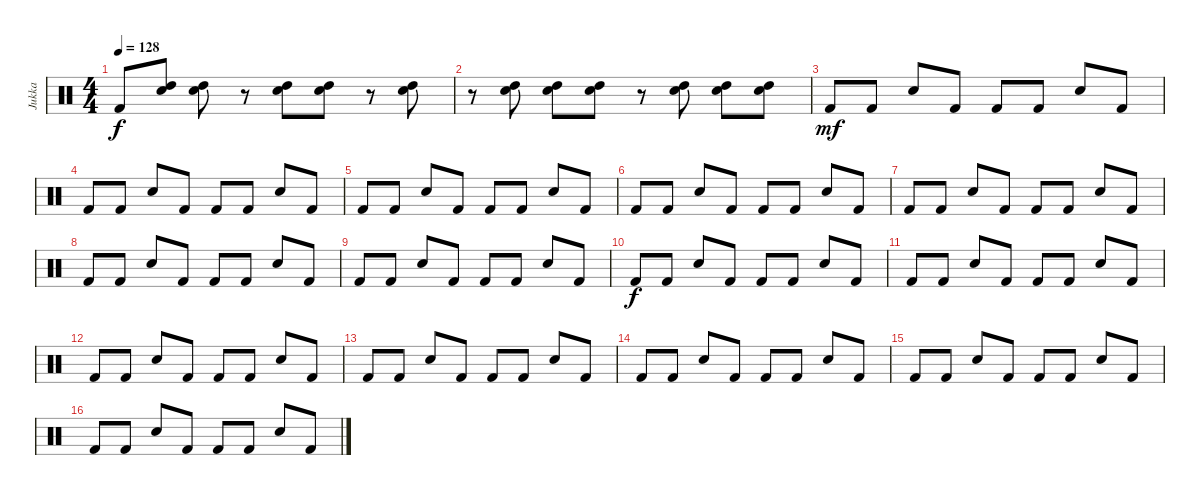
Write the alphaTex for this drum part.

\track ("Jukka" "Jukka") {instrument percussion}
\staff {score}
\articulation defaults
\ts (4 4)
\tempo 128
\clef neutral
\ks c "Kick (hit) 2".8{dy f}
("Electric Snare (hit)" "High Tom (hit)").8 ("Electric Snare (hit)" "High Tom (hit)").8 r.8 ("Electric Snare (hit)" "High Tom (hit)").8 ("Electric Snare (hit)" "High Tom (hit)").8 r.8 ("Electric Snare (hit)" "High Tom (hit)").8 |
r.8 ("Electric Snare (hit)" "High Tom (hit)").8 ("Electric Snare (hit)" "High Tom (hit)").8 ("Electric Snare (hit)" "High Tom (hit)").8 r.8 ("Electric Snare (hit)" "High Tom (hit)").8 ("Electric Snare (hit)" "High Tom (hit)").8 ("Electric Snare (hit)" "High Tom (hit)").8 |
"Kick (hit) 2".8{dy mf} "Kick (hit) 2".8 "Electric Snare (hit)".8 "Kick (hit) 2".8 "Kick (hit) 2".8 "Kick (hit) 2".8 "Electric Snare (hit)".8 "Kick (hit) 2".8 |
"Kick (hit) 2".8 "Kick (hit) 2".8 "Electric Snare (hit)".8 "Kick (hit) 2".8 "Kick (hit) 2".8 "Kick (hit) 2".8 "Electric Snare (hit)".8 "Kick (hit) 2".8 |
"Kick (hit) 2".8 "Kick (hit) 2".8 "Electric Snare (hit)".8 "Kick (hit) 2".8 "Kick (hit) 2".8 "Kick (hit) 2".8 "Electric Snare (hit)".8 "Kick (hit) 2".8 |
"Kick (hit) 2".8 "Kick (hit) 2".8 "Electric Snare (hit)".8 "Kick (hit) 2".8 "Kick (hit) 2".8 "Kick (hit) 2".8 "Electric Snare (hit)".8 "Kick (hit) 2".8 |
"Kick (hit) 2".8 "Kick (hit) 2".8 "Electric Snare (hit)".8 "Kick (hit) 2".8 "Kick (hit) 2".8 "Kick (hit) 2".8 "Electric Snare (hit)".8 "Kick (hit) 2".8 |
"Kick (hit) 2".8 "Kick (hit) 2".8 "Electric Snare (hit)".8 "Kick (hit) 2".8 "Kick (hit) 2".8 "Kick (hit) 2".8 "Electric Snare (hit)".8 "Kick (hit) 2".8 |
"Kick (hit) 2".8 "Kick (hit) 2".8 "Electric Snare (hit)".8 "Kick (hit) 2".8 "Kick (hit) 2".8 "Kick (hit) 2".8 "Electric Snare (hit)".8 "Kick (hit) 2".8 |
"Kick (hit) 2".8{dy f} "Kick (hit) 2".8 "Electric Snare (hit)".8 "Kick (hit) 2".8 "Kick (hit) 2".8 "Kick (hit) 2".8 "Electric Snare (hit)".8 "Kick (hit) 2".8 |
"Kick (hit) 2".8 "Kick (hit) 2".8 "Electric Snare (hit)".8 "Kick (hit) 2".8 "Kick (hit) 2".8 "Kick (hit) 2".8 "Electric Snare (hit)".8 "Kick (hit) 2".8 |
"Kick (hit) 2".8 "Kick (hit) 2".8 "Electric Snare (hit)".8 "Kick (hit) 2".8 "Kick (hit) 2".8 "Kick (hit) 2".8 "Electric Snare (hit)".8 "Kick (hit) 2".8 |
"Kick (hit) 2".8 "Kick (hit) 2".8 "Electric Snare (hit)".8 "Kick (hit) 2".8 "Kick (hit) 2".8 "Kick (hit) 2".8 "Electric Snare (hit)".8 "Kick (hit) 2".8 |
"Kick (hit) 2".8 "Kick (hit) 2".8 "Electric Snare (hit)".8 "Kick (hit) 2".8 "Kick (hit) 2".8 "Kick (hit) 2".8 "Electric Snare (hit)".8 "Kick (hit) 2".8 |
"Kick (hit) 2".8 "Kick (hit) 2".8 "Electric Snare (hit)".8 "Kick (hit) 2".8 "Kick (hit) 2".8 "Kick (hit) 2".8 "Electric Snare (hit)".8 "Kick (hit) 2".8 |
"Kick (hit) 2".8 "Kick (hit) 2".8 "Electric Snare (hit)".8 "Kick (hit) 2".8 "Kick (hit) 2".8 "Kick (hit) 2".8 "Electric Snare (hit)".8 "Kick (hit) 2".8
